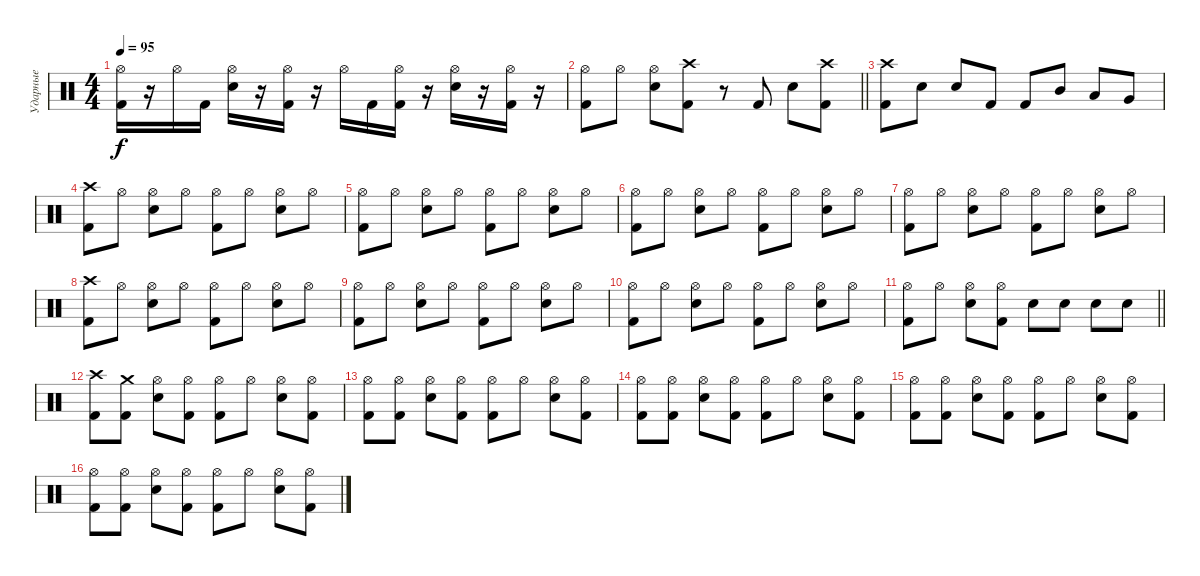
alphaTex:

\track ("Ударные" "Ударные") {instrument percussion}
\staff {score}
\articulation defaults
\ts (4 4)
\tempo 95
\clef neutral
\ks c
("Hi-Hat (open)" "Kick (hit) 2").16{dy f} r.16 "Hi-Hat (open)".16 "Kick (hit) 2".16 ("Hi-Hat (open)" "Electric Snare (hit)").16 r.16 ("Hi-Hat (open)" "Kick (hit) 2").16 r.16 "Hi-Hat (open)".16 "Kick (hit) 2".16 ("Hi-Hat (open)" "Kick (hit) 2").16 r.16 ("Hi-Hat (open)" "Electric Snare (hit)").16 r.16 ("Hi-Hat (open)" "Kick (hit) 2").16 r.16 |
\barLineRight lightlight
("Hi-Hat (open)" "Kick (hit) 2").8 "Hi-Hat (open)".8 ("Hi-Hat (open)" "Electric Snare (hit)").8 ("Crash high (hit)" "Kick (hit) 2").8 r.8 "Kick (hit) 2".8 "Electric Snare (hit)".8 ("Crash high (hit)" "Kick (hit) 2").8 |
("Crash high (hit)" "Kick (hit) 2").8 "Electric Snare (hit)".8 "Electric Snare (hit)".8 "Kick (hit) 2".8 "Kick (hit) 2".8 "Mid Tom (hit)".8 "Low Tom (hit)".8 "Very Low Tom (hit)".8 |
("Crash high (hit)" "Kick (hit) 2").8 "Hi-Hat (open)".8 ("Hi-Hat (open)" "Electric Snare (hit)").8 "Hi-Hat (open)".8 ("Hi-Hat (open)" "Kick (hit) 2").8 "Hi-Hat (open)".8 ("Hi-Hat (open)" "Electric Snare (hit)").8 "Hi-Hat (open)".8 |
("Hi-Hat (open)" "Kick (hit) 2").8 "Hi-Hat (open)".8 ("Hi-Hat (open)" "Electric Snare (hit)").8 "Hi-Hat (open)".8 ("Hi-Hat (open)" "Kick (hit) 2").8 "Hi-Hat (open)".8 ("Hi-Hat (open)" "Electric Snare (hit)").8 "Hi-Hat (open)".8 |
("Hi-Hat (open)" "Kick (hit) 2").8 "Hi-Hat (open)".8 ("Hi-Hat (open)" "Electric Snare (hit)").8 "Hi-Hat (open)".8 ("Hi-Hat (open)" "Kick (hit) 2").8 "Hi-Hat (open)".8 ("Hi-Hat (open)" "Electric Snare (hit)").8 "Hi-Hat (open)".8 |
("Hi-Hat (open)" "Kick (hit) 2").8 "Hi-Hat (open)".8 ("Hi-Hat (open)" "Electric Snare (hit)").8 "Hi-Hat (open)".8 ("Hi-Hat (open)" "Kick (hit) 2").8 "Hi-Hat (open)".8 ("Hi-Hat (open)" "Electric Snare (hit)").8 "Hi-Hat (open)".8 |
("Crash high (hit)" "Kick (hit) 2").8 "Hi-Hat (open)".8 ("Hi-Hat (open)" "Electric Snare (hit)").8 "Hi-Hat (open)".8 ("Hi-Hat (open)" "Kick (hit) 2").8 "Hi-Hat (open)".8 ("Hi-Hat (open)" "Electric Snare (hit)").8 "Hi-Hat (open)".8 |
("Hi-Hat (open)" "Kick (hit) 2").8 "Hi-Hat (open)".8 ("Hi-Hat (open)" "Electric Snare (hit)").8 "Hi-Hat (open)".8 ("Hi-Hat (open)" "Kick (hit) 2").8 "Hi-Hat (open)".8 ("Hi-Hat (open)" "Electric Snare (hit)").8 "Hi-Hat (open)".8 |
("Hi-Hat (open)" "Kick (hit) 2").8 "Hi-Hat (open)".8 ("Hi-Hat (open)" "Electric Snare (hit)").8 "Hi-Hat (open)".8 ("Hi-Hat (open)" "Kick (hit) 2").8 "Hi-Hat (open)".8 ("Hi-Hat (open)" "Electric Snare (hit)").8 "Hi-Hat (open)".8 |
\barLineRight lightlight
("Hi-Hat (open)" "Kick (hit) 2").8 "Hi-Hat (open)".8 ("Hi-Hat (open)" "Electric Snare (hit)").8 ("Hi-Hat (open)" "Kick (hit) 2").8 "Electric Snare (hit)".8 "Electric Snare (hit)".8 "Electric Snare (hit)".8 "Electric Snare (hit)".8 |
("Crash high (hit)" "Kick (hit) 2").8 ("Crash medium (hit)" "Kick (hit) 2").8 ("Hi-Hat (open)" "Electric Snare (hit)").8 ("Hi-Hat (open)" "Kick (hit) 2").8 ("Hi-Hat (open)" "Kick (hit) 2").8 "Hi-Hat (open)".8 ("Hi-Hat (open)" "Electric Snare (hit)").8 ("Hi-Hat (open)" "Kick (hit) 2").8 |
("Hi-Hat (open)" "Kick (hit) 2").8 ("Hi-Hat (open)" "Kick (hit) 2").8 ("Hi-Hat (open)" "Electric Snare (hit)").8 ("Hi-Hat (open)" "Kick (hit) 2").8 ("Hi-Hat (open)" "Kick (hit) 2").8 "Hi-Hat (open)".8 ("Hi-Hat (open)" "Electric Snare (hit)").8 ("Hi-Hat (open)" "Kick (hit) 2").8 |
("Hi-Hat (open)" "Kick (hit) 2").8 ("Hi-Hat (open)" "Kick (hit) 2").8 ("Hi-Hat (open)" "Electric Snare (hit)").8 ("Hi-Hat (open)" "Kick (hit) 2").8 ("Hi-Hat (open)" "Kick (hit) 2").8 "Hi-Hat (open)".8 ("Hi-Hat (open)" "Electric Snare (hit)").8 ("Hi-Hat (open)" "Kick (hit) 2").8 |
("Hi-Hat (open)" "Kick (hit) 2").8 ("Hi-Hat (open)" "Kick (hit) 2").8 ("Hi-Hat (open)" "Electric Snare (hit)").8 ("Hi-Hat (open)" "Kick (hit) 2").8 ("Hi-Hat (open)" "Kick (hit) 2").8 "Hi-Hat (open)".8 ("Hi-Hat (open)" "Electric Snare (hit)").8 ("Hi-Hat (open)" "Kick (hit) 2").8 |
("Hi-Hat (open)" "Kick (hit) 2").8 ("Hi-Hat (open)" "Kick (hit) 2").8 ("Hi-Hat (open)" "Electric Snare (hit)").8 ("Hi-Hat (open)" "Kick (hit) 2").8 ("Hi-Hat (open)" "Kick (hit) 2").8 "Hi-Hat (open)".8 ("Hi-Hat (open)" "Electric Snare (hit)").8 ("Hi-Hat (open)" "Kick (hit) 2").8
